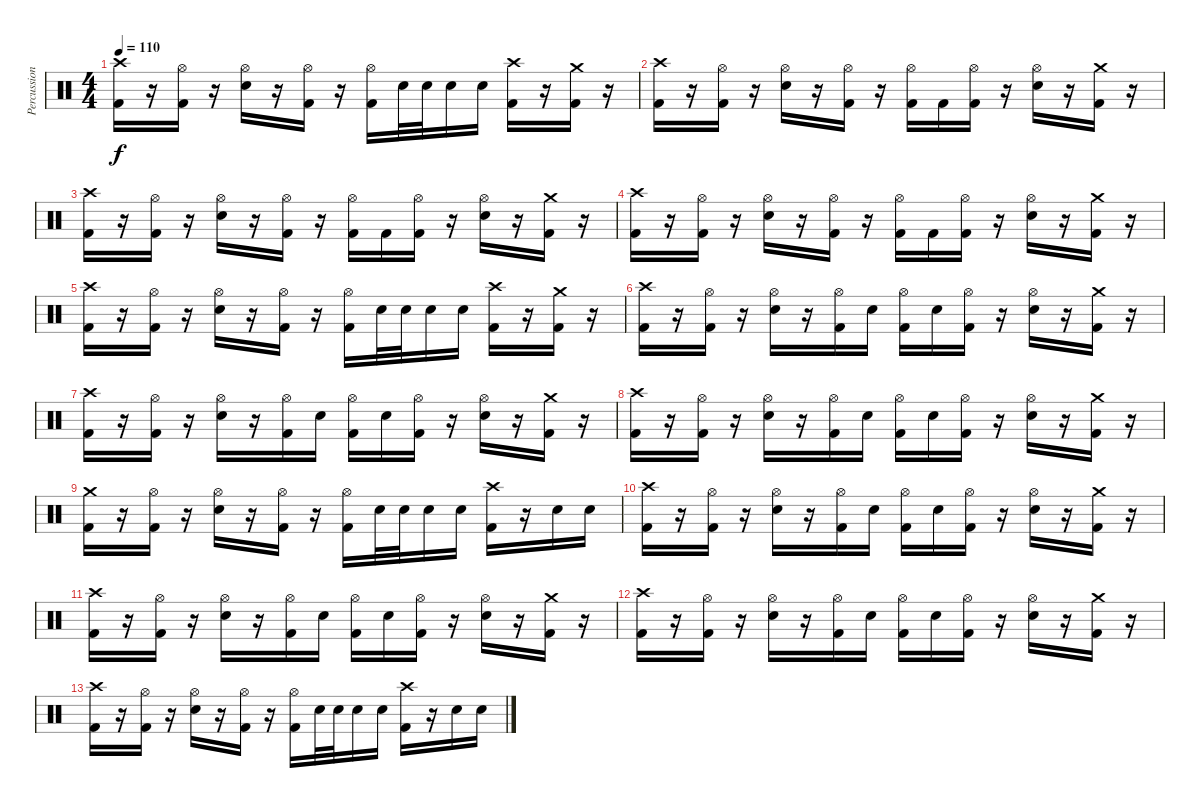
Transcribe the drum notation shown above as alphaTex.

\track ("Percussion" "Percussion") {instrument percussion}
\staff {score}
\articulation defaults
\ts (4 4)
\tempo 110
\clef neutral
\ks c
("Crash high (hit)" "Kick (hit) 2").16{dy f} r.16 ("Hi-Hat (open)" "Kick (hit) 2").16 r.16 ("Hi-Hat (open)" "Snare (hit) 2").16 r.16 ("Hi-Hat (open)" "Kick (hit) 2").16 r.16 ("Hi-Hat (open)" "Kick (hit) 2").16 "Snare (hit) 2".32 "Snare (hit) 2".32 "Snare (hit) 2".16 "Snare (hit) 2".16 ("Kick (hit) 2" "Crash high (hit)").16 r.16 ("Kick (hit) 2" "Crash medium (hit)").16 r.16 |
("Crash high (hit)" "Kick (hit) 2").16 r.16 ("Hi-Hat (open)" "Kick (hit) 2").16 r.16 ("Hi-Hat (open)" "Snare (hit) 2").16 r.16 ("Hi-Hat (open)" "Kick (hit) 2").16 r.16 ("Hi-Hat (open)" "Kick (hit) 2").16 "Kick (hit) 2".16 ("Hi-Hat (open)" "Kick (hit) 2").16 r.16 ("Hi-Hat (open)" "Snare (hit) 2").16 r.16 ("Crash medium (hit)" "Kick (hit) 2").16 r.16 |
("Crash high (hit)" "Kick (hit) 2").16 r.16 ("Hi-Hat (open)" "Kick (hit) 2").16 r.16 ("Hi-Hat (open)" "Snare (hit) 2").16 r.16 ("Hi-Hat (open)" "Kick (hit) 2").16 r.16 ("Hi-Hat (open)" "Kick (hit) 2").16 "Kick (hit) 2".16 ("Hi-Hat (open)" "Kick (hit) 2").16 r.16 ("Hi-Hat (open)" "Snare (hit) 2").16 r.16 ("Crash medium (hit)" "Kick (hit) 2").16 r.16 |
("Crash high (hit)" "Kick (hit) 2").16 r.16 ("Hi-Hat (open)" "Kick (hit) 2").16 r.16 ("Hi-Hat (open)" "Snare (hit) 2").16 r.16 ("Hi-Hat (open)" "Kick (hit) 2").16 r.16 ("Hi-Hat (open)" "Kick (hit) 2").16 "Kick (hit) 2".16 ("Hi-Hat (open)" "Kick (hit) 2").16 r.16 ("Hi-Hat (open)" "Snare (hit) 2").16 r.16 ("Crash medium (hit)" "Kick (hit) 2").16 r.16 |
("Crash high (hit)" "Kick (hit) 2").16 r.16 ("Hi-Hat (open)" "Kick (hit) 2").16 r.16 ("Hi-Hat (open)" "Snare (hit) 2").16 r.16 ("Hi-Hat (open)" "Kick (hit) 2").16 r.16 ("Hi-Hat (open)" "Kick (hit) 2").16 "Snare (hit) 2".32 "Snare (hit) 2".32 "Snare (hit) 2".16 "Snare (hit) 2".16 ("Kick (hit) 2" "Crash high (hit)").16 r.16 ("Kick (hit) 2" "Crash medium (hit)").16 r.16 |
("Crash high (hit)" "Kick (hit) 2").16 r.16 ("Hi-Hat (open)" "Kick (hit) 2").16 r.16 ("Hi-Hat (open)" "Snare (hit) 2").16 r.16 ("Hi-Hat (open)" "Kick (hit) 2").16 "Snare (hit) 2".16 ("Hi-Hat (open)" "Kick (hit) 2").16 "Snare (hit) 2".16 ("Hi-Hat (open)" "Kick (hit) 2").16 r.16 ("Hi-Hat (open)" "Snare (hit) 2").16 r.16 ("Crash medium (hit)" "Kick (hit) 2").16 r.16 |
("Crash high (hit)" "Kick (hit) 2").16 r.16 ("Hi-Hat (open)" "Kick (hit) 2").16 r.16 ("Hi-Hat (open)" "Snare (hit) 2").16 r.16 ("Hi-Hat (open)" "Kick (hit) 2").16 "Snare (hit) 2".16 ("Hi-Hat (open)" "Kick (hit) 2").16 "Snare (hit) 2".16 ("Hi-Hat (open)" "Kick (hit) 2").16 r.16 ("Hi-Hat (open)" "Snare (hit) 2").16 r.16 ("Crash medium (hit)" "Kick (hit) 2").16 r.16 |
("Crash high (hit)" "Kick (hit) 2").16 r.16 ("Hi-Hat (open)" "Kick (hit) 2").16 r.16 ("Hi-Hat (open)" "Snare (hit) 2").16 r.16 ("Hi-Hat (open)" "Kick (hit) 2").16 "Snare (hit) 2".16 ("Hi-Hat (open)" "Kick (hit) 2").16 "Snare (hit) 2".16 ("Hi-Hat (open)" "Kick (hit) 2").16 r.16 ("Hi-Hat (open)" "Snare (hit) 2").16 r.16 ("Crash medium (hit)" "Kick (hit) 2").16 r.16 |
("Crash medium (hit)" "Kick (hit) 2").16 r.16 ("Hi-Hat (open)" "Kick (hit) 2").16 r.16 ("Hi-Hat (open)" "Snare (hit) 2").16 r.16 ("Hi-Hat (open)" "Kick (hit) 2").16 r.16 ("Hi-Hat (open)" "Kick (hit) 2").16 "Snare (hit) 2".32 "Snare (hit) 2".32 "Snare (hit) 2".16 "Snare (hit) 2".16 ("Kick (hit) 2" "Crash high (hit)").16 r.16 "Snare (hit) 2".16 "Snare (hit) 2".16 |
("Crash high (hit)" "Kick (hit) 2").16 r.16 ("Hi-Hat (open)" "Kick (hit) 2").16 r.16 ("Hi-Hat (open)" "Snare (hit) 2").16 r.16 ("Hi-Hat (open)" "Kick (hit) 2").16 "Snare (hit) 2".16 ("Hi-Hat (open)" "Kick (hit) 2").16 "Snare (hit) 2".16 ("Hi-Hat (open)" "Kick (hit) 2").16 r.16 ("Hi-Hat (open)" "Snare (hit) 2").16 r.16 ("Crash medium (hit)" "Kick (hit) 2").16 r.16 |
("Crash high (hit)" "Kick (hit) 2").16 r.16 ("Hi-Hat (open)" "Kick (hit) 2").16 r.16 ("Hi-Hat (open)" "Snare (hit) 2").16 r.16 ("Hi-Hat (open)" "Kick (hit) 2").16 "Snare (hit) 2".16 ("Hi-Hat (open)" "Kick (hit) 2").16 "Snare (hit) 2".16 ("Hi-Hat (open)" "Kick (hit) 2").16 r.16 ("Hi-Hat (open)" "Snare (hit) 2").16 r.16 ("Crash medium (hit)" "Kick (hit) 2").16 r.16 |
("Crash high (hit)" "Kick (hit) 2").16 r.16 ("Hi-Hat (open)" "Kick (hit) 2").16 r.16 ("Hi-Hat (open)" "Snare (hit) 2").16 r.16 ("Hi-Hat (open)" "Kick (hit) 2").16 "Snare (hit) 2".16 ("Hi-Hat (open)" "Kick (hit) 2").16 "Snare (hit) 2".16 ("Hi-Hat (open)" "Kick (hit) 2").16 r.16 ("Hi-Hat (open)" "Snare (hit) 2").16 r.16 ("Crash medium (hit)" "Kick (hit) 2").16 r.16 |
("Crash high (hit)" "Kick (hit) 2").16 r.16 ("Hi-Hat (open)" "Kick (hit) 2").16 r.16 ("Hi-Hat (open)" "Snare (hit) 2").16 r.16 ("Hi-Hat (open)" "Kick (hit) 2").16 r.16 ("Hi-Hat (open)" "Kick (hit) 2").16 "Snare (hit) 2".32 "Snare (hit) 2".32 "Snare (hit) 2".16 "Snare (hit) 2".16 ("Kick (hit) 2" "Crash high (hit)").16 r.16 "Snare (hit) 2".16 "Snare (hit) 2".16
